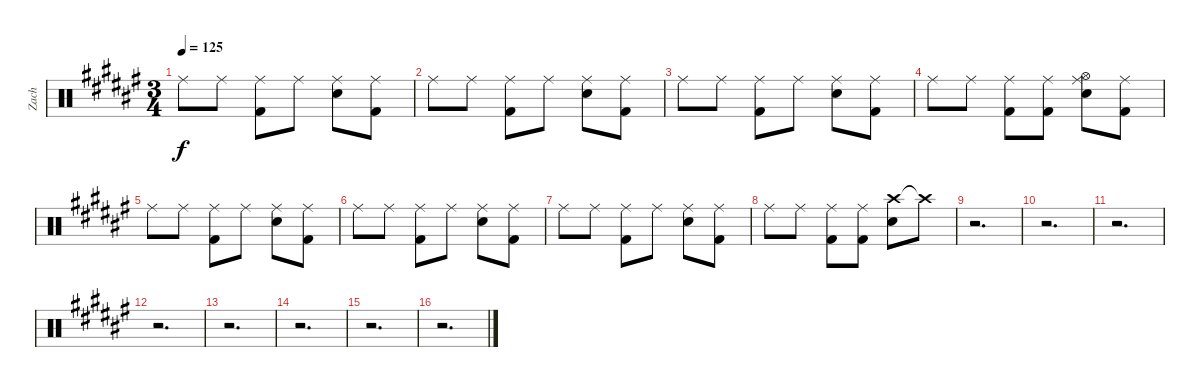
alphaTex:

\track ("Zach" "Zach") {instrument percussion}
\staff {score}
\articulation defaults
\ts (3 4)
\tempo 125
\clef neutral
\ks f# "Ride (middle)".8{dy f} "Ride (middle)".8
("Ride (middle)" "Kick (hit) 2").8 "Ride (middle)".8 ("Ride (middle)" "Snare (hit) 2").8 ("Ride (middle)" "Kick (hit) 2").8 |
"Ride (middle)".8 "Ride (middle)".8 ("Ride (middle)" "Kick (hit) 2").8 "Ride (middle)".8 ("Ride (middle)" "Snare (hit) 2").8 ("Ride (middle)" "Kick (hit) 2").8 |
"Ride (middle)".8 "Ride (middle)".8 ("Ride (middle)" "Kick (hit) 2").8 "Ride (middle)".8 ("Ride (middle)" "Snare (hit) 2").8 ("Ride (middle)" "Kick (hit) 2").8 |
"Ride (middle)".8 "Ride (middle)".8 ("Ride (middle)" "Kick (hit) 2").8 ("Ride (middle)" "Kick (hit) 2").8 ("Hi-Hat (open)" "Ride (middle)" "Snare (hit) 2").8 ("Ride (middle)" "Kick (hit) 2").8 |
"Ride (middle)".8 "Ride (middle)".8 ("Ride (middle)" "Kick (hit) 2").8 "Ride (middle)".8 ("Ride (middle)" "Snare (hit) 2").8 ("Ride (middle)" "Kick (hit) 2").8 |
"Ride (middle)".8 "Ride (middle)".8 ("Ride (middle)" "Kick (hit) 2").8 "Ride (middle)".8 ("Ride (middle)" "Snare (hit) 2").8 ("Ride (middle)" "Kick (hit) 2").8 |
"Ride (middle)".8 "Ride (middle)".8 ("Ride (middle)" "Kick (hit) 2").8 "Ride (middle)".8 ("Ride (middle)" "Snare (hit) 2").8 ("Ride (middle)" "Kick (hit) 2").8 |
"Ride (middle)".8 "Ride (middle)".8 ("Ride (middle)" "Kick (hit) 2").8 ("Ride (middle)" "Kick (hit) 2").8 ("Crash high (hit)" "Snare (hit) 2").8 "Crash high (hit)"{t}.8 |
r.2{d} |
r.2{d} |
r.2{d} |
r.2{d} |
r.2{d} |
r.2{d} |
r.2{d} |
r.2{d}
